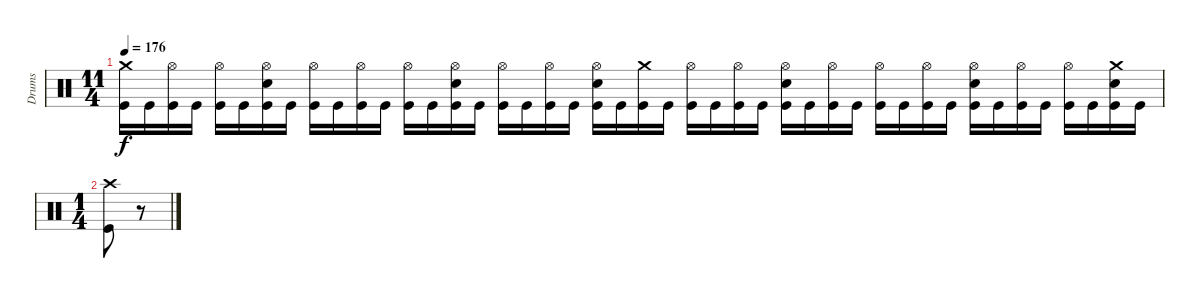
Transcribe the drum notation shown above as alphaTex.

\track ("Drums" "Drums") {instrument percussion}
\staff {score}
\articulation defaults
\ts (11 4)
\tempo 176
\clef neutral
\ks c
("Crash medium (hit)" "Kick (hit)").16{dy f} "Kick (hit)".16 ("Hi-Hat (open)" "Kick (hit)").16 "Kick (hit)".16 ("Hi-Hat (open)" "Kick (hit)").16 "Kick (hit)".16 ("Hi-Hat (open)" "Electric Snare (hit)" "Kick (hit)").16 "Kick (hit)".16 ("Hi-Hat (open)" "Kick (hit)").16 "Kick (hit)".16 ("Hi-Hat (open)" "Kick (hit)").16 "Kick (hit)".16 ("Hi-Hat (open)" "Kick (hit)").16 "Kick (hit)".16 ("Hi-Hat (open)" "Electric Snare (hit)" "Kick (hit)").16 "Kick (hit)".16 ("Hi-Hat (open)" "Kick (hit)").16 "Kick (hit)".16 ("Hi-Hat (open)" "Kick (hit)").16 "Kick (hit)".16 ("Hi-Hat (open)" "Electric Snare (hit)" "Kick (hit)").16 "Kick (hit)".16 ("Crash medium (hit)" "Kick (hit)").16 "Kick (hit)".16 ("Hi-Hat (open)" "Kick (hit)").16 "Kick (hit)".16 ("Hi-Hat (open)" "Kick (hit)").16 "Kick (hit)".16 ("Hi-Hat (open)" "Electric Snare (hit)" "Kick (hit)").16 "Kick (hit)".16 ("Hi-Hat (open)" "Kick (hit)").16 "Kick (hit)".16 ("Hi-Hat (open)" "Kick (hit)").16 "Kick (hit)".16 ("Hi-Hat (open)" "Kick (hit)").16 "Kick (hit)".16 ("Hi-Hat (open)" "Electric Snare (hit)" "Kick (hit)").16 "Kick (hit)".16 ("Hi-Hat (open)" "Kick (hit)").16 "Kick (hit)".16 ("Hi-Hat (open)" "Kick (hit)").16 "Kick (hit)".16 ("Crash medium (hit)" "Electric Snare (hit)" "Kick (hit)").16 "Kick (hit)".16 |
\ts (1 4)
("Crash high (hit)" "Kick (hit)").8 r.8
